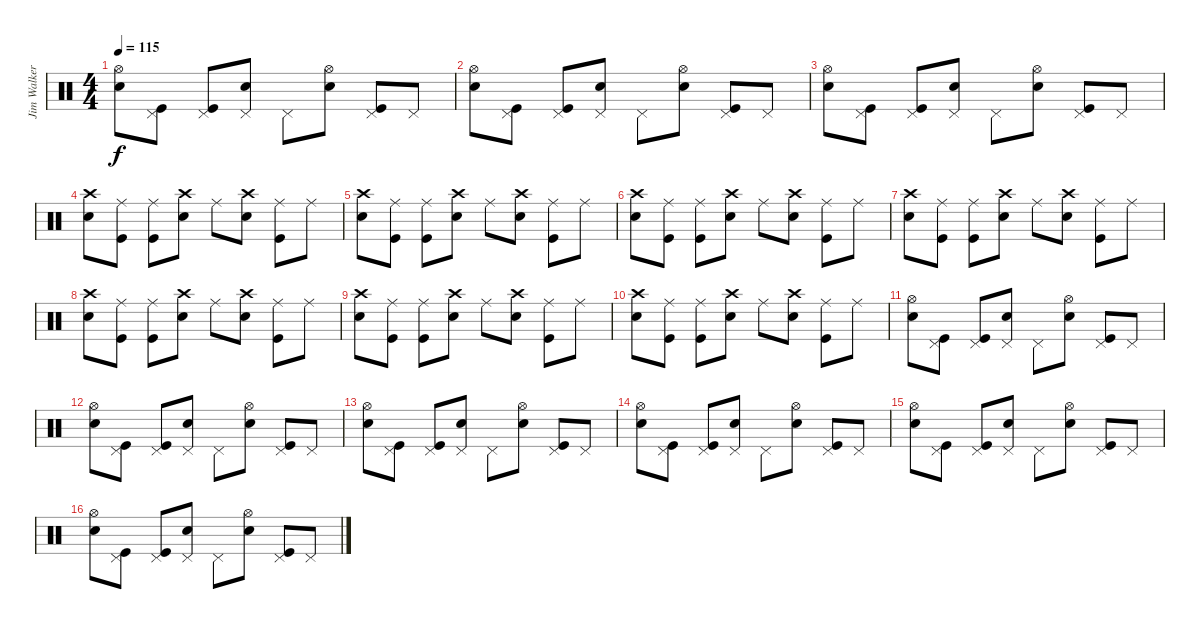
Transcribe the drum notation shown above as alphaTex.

\track ("Jim Walker-Drums" "Jim Walker") {instrument percussion}
\staff {score}
\articulation defaults
\ts (4 4)
\tempo 115
\clef neutral
\ks c
("Hi-Hat (open)" "Electric Snare (hit)").8{dy f} ("Pedal Hi-Hat (hit)" "Kick (hit)").8 ("Pedal Hi-Hat (hit)" "Kick (hit)").8 ("Pedal Hi-Hat (hit)" "Electric Snare (hit)").8 "Pedal Hi-Hat (hit)".8 ("Hi-Hat (open)" "Electric Snare (hit)").8 ("Pedal Hi-Hat (hit)" "Kick (hit)").8 "Pedal Hi-Hat (hit)".8 |
("Hi-Hat (open)" "Electric Snare (hit)").8 ("Pedal Hi-Hat (hit)" "Kick (hit)").8 ("Pedal Hi-Hat (hit)" "Kick (hit)").8 ("Pedal Hi-Hat (hit)" "Electric Snare (hit)").8 "Pedal Hi-Hat (hit)".8 ("Hi-Hat (open)" "Electric Snare (hit)").8 ("Pedal Hi-Hat (hit)" "Kick (hit)").8 "Pedal Hi-Hat (hit)".8 |
("Hi-Hat (open)" "Electric Snare (hit)").8 ("Pedal Hi-Hat (hit)" "Kick (hit)").8 ("Pedal Hi-Hat (hit)" "Kick (hit)").8 ("Pedal Hi-Hat (hit)" "Electric Snare (hit)").8 "Pedal Hi-Hat (hit)".8 ("Hi-Hat (open)" "Electric Snare (hit)").8 ("Pedal Hi-Hat (hit)" "Kick (hit)").8 "Pedal Hi-Hat (hit)".8 |
("Crash high (hit)" "Electric Snare (hit)").8 ("Ride (middle)" "Kick (hit)").8 ("Ride (middle)" "Kick (hit)").8 ("Crash high (hit)" "Electric Snare (hit)").8 "Ride (middle)".8 ("Crash high (hit)" "Electric Snare (hit)").8 ("Ride (middle)" "Kick (hit)").8 "Ride (middle)".8 |
("Crash high (hit)" "Electric Snare (hit)").8 ("Ride (middle)" "Kick (hit)").8 ("Ride (middle)" "Kick (hit)").8 ("Crash high (hit)" "Electric Snare (hit)").8 "Ride (middle)".8 ("Crash high (hit)" "Electric Snare (hit)").8 ("Ride (middle)" "Kick (hit)").8 "Ride (middle)".8 |
("Crash high (hit)" "Electric Snare (hit)").8 ("Ride (middle)" "Kick (hit)").8 ("Ride (middle)" "Kick (hit)").8 ("Crash high (hit)" "Electric Snare (hit)").8 "Ride (middle)".8 ("Crash high (hit)" "Electric Snare (hit)").8 ("Ride (middle)" "Kick (hit)").8 "Ride (middle)".8 |
("Crash high (hit)" "Electric Snare (hit)").8 ("Ride (middle)" "Kick (hit)").8 ("Ride (middle)" "Kick (hit)").8 ("Crash high (hit)" "Electric Snare (hit)").8 "Ride (middle)".8 ("Crash high (hit)" "Electric Snare (hit)").8 ("Ride (middle)" "Kick (hit)").8 "Ride (middle)".8 |
("Crash high (hit)" "Electric Snare (hit)").8 ("Ride (middle)" "Kick (hit)").8 ("Ride (middle)" "Kick (hit)").8 ("Crash high (hit)" "Electric Snare (hit)").8 "Ride (middle)".8 ("Crash high (hit)" "Electric Snare (hit)").8 ("Ride (middle)" "Kick (hit)").8 "Ride (middle)".8 |
("Crash high (hit)" "Electric Snare (hit)").8 ("Ride (middle)" "Kick (hit)").8 ("Ride (middle)" "Kick (hit)").8 ("Crash high (hit)" "Electric Snare (hit)").8 "Ride (middle)".8 ("Crash high (hit)" "Electric Snare (hit)").8 ("Ride (middle)" "Kick (hit)").8 "Ride (middle)".8 |
("Crash high (hit)" "Electric Snare (hit)").8 ("Ride (middle)" "Kick (hit)").8 ("Ride (middle)" "Kick (hit)").8 ("Crash high (hit)" "Electric Snare (hit)").8 "Ride (middle)".8 ("Crash high (hit)" "Electric Snare (hit)").8 ("Ride (middle)" "Kick (hit)").8 "Ride (middle)".8 |
("Hi-Hat (open)" "Electric Snare (hit)").8 ("Pedal Hi-Hat (hit)" "Kick (hit)").8 ("Pedal Hi-Hat (hit)" "Kick (hit)").8 ("Pedal Hi-Hat (hit)" "Electric Snare (hit)").8 "Pedal Hi-Hat (hit)".8 ("Hi-Hat (open)" "Electric Snare (hit)").8 ("Pedal Hi-Hat (hit)" "Kick (hit)").8 "Pedal Hi-Hat (hit)".8 |
("Hi-Hat (open)" "Electric Snare (hit)").8 ("Pedal Hi-Hat (hit)" "Kick (hit)").8 ("Pedal Hi-Hat (hit)" "Kick (hit)").8 ("Pedal Hi-Hat (hit)" "Electric Snare (hit)").8 "Pedal Hi-Hat (hit)".8 ("Hi-Hat (open)" "Electric Snare (hit)").8 ("Pedal Hi-Hat (hit)" "Kick (hit)").8 "Pedal Hi-Hat (hit)".8 |
("Hi-Hat (open)" "Electric Snare (hit)").8 ("Pedal Hi-Hat (hit)" "Kick (hit)").8 ("Pedal Hi-Hat (hit)" "Kick (hit)").8 ("Pedal Hi-Hat (hit)" "Electric Snare (hit)").8 "Pedal Hi-Hat (hit)".8 ("Hi-Hat (open)" "Electric Snare (hit)").8 ("Pedal Hi-Hat (hit)" "Kick (hit)").8 "Pedal Hi-Hat (hit)".8 |
("Hi-Hat (open)" "Electric Snare (hit)").8 ("Pedal Hi-Hat (hit)" "Kick (hit)").8 ("Pedal Hi-Hat (hit)" "Kick (hit)").8 ("Pedal Hi-Hat (hit)" "Electric Snare (hit)").8 "Pedal Hi-Hat (hit)".8 ("Hi-Hat (open)" "Electric Snare (hit)").8 ("Pedal Hi-Hat (hit)" "Kick (hit)").8 "Pedal Hi-Hat (hit)".8 |
("Hi-Hat (open)" "Electric Snare (hit)").8 ("Pedal Hi-Hat (hit)" "Kick (hit)").8 ("Pedal Hi-Hat (hit)" "Kick (hit)").8 ("Pedal Hi-Hat (hit)" "Electric Snare (hit)").8 "Pedal Hi-Hat (hit)".8 ("Hi-Hat (open)" "Electric Snare (hit)").8 ("Pedal Hi-Hat (hit)" "Kick (hit)").8 "Pedal Hi-Hat (hit)".8 |
("Hi-Hat (open)" "Electric Snare (hit)").8 ("Pedal Hi-Hat (hit)" "Kick (hit)").8 ("Pedal Hi-Hat (hit)" "Kick (hit)").8 ("Pedal Hi-Hat (hit)" "Electric Snare (hit)").8 "Pedal Hi-Hat (hit)".8 ("Hi-Hat (open)" "Electric Snare (hit)").8 ("Pedal Hi-Hat (hit)" "Kick (hit)").8 "Pedal Hi-Hat (hit)".8
